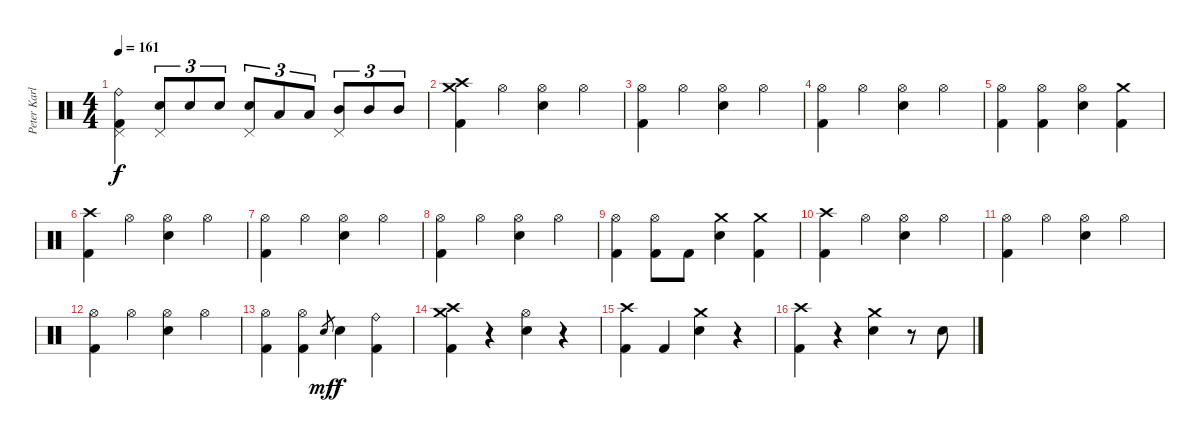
\track ("Peter Karlsson" "Peter Karl") {instrument percussion}
\staff {score}
\articulation defaults
\ts (4 4)
\tempo 161
\clef neutral
\ks c
("Ride (bell)" "Pedal Hi-Hat (hit)" "Kick (hit) 2").4{dy f} ("Snare (hit) 2" "Pedal Hi-Hat (hit)").8{tu (3 2)} "Snare (hit) 2".8{tu (3 2)} "Snare (hit) 2".8{tu (3 2)} ("Snare (hit) 2" "Pedal Hi-Hat (hit)").8{tu (3 2)} "Low Tom (hit)".8{tu (3 2)} "Low Tom (hit)".8{tu (3 2)} ("Mid Tom (hit)" "Pedal Hi-Hat (hit)").8{tu (3 2)} "Mid Tom (hit)".8{tu (3 2)} "Mid Tom (hit)".8{tu (3 2)} |
("Crash high (hit)" "Crash medium (hit)" "Kick (hit) 2").4 "Hi-Hat (open)".4 ("Hi-Hat (open)" "Snare (hit) 2").4 "Hi-Hat (open)".4 |
("Hi-Hat (open)" "Kick (hit) 2").4 "Hi-Hat (open)".4 ("Hi-Hat (open)" "Snare (hit) 2").4 "Hi-Hat (open)".4 |
("Hi-Hat (open)" "Kick (hit) 2").4 "Hi-Hat (open)".4 ("Hi-Hat (open)" "Snare (hit) 2").4 "Hi-Hat (open)".4 |
("Hi-Hat (open)" "Kick (hit) 2").4 ("Hi-Hat (open)" "Kick (hit) 2").4 ("Hi-Hat (open)" "Snare (hit) 2").4 ("Crash medium (hit)" "Kick (hit) 2").4 |
("Crash high (hit)" "Kick (hit) 2").4 "Hi-Hat (open)".4 ("Hi-Hat (open)" "Snare (hit) 2").4 "Hi-Hat (open)".4 |
("Hi-Hat (open)" "Kick (hit) 2").4 "Hi-Hat (open)".4 ("Hi-Hat (open)" "Snare (hit) 2").4 "Hi-Hat (open)".4 |
("Hi-Hat (open)" "Kick (hit) 2").4 "Hi-Hat (open)".4 ("Hi-Hat (open)" "Snare (hit) 2").4 "Hi-Hat (open)".4 |
("Hi-Hat (open)" "Kick (hit) 2").4 ("Hi-Hat (open)" "Kick (hit) 2").8 "Kick (hit) 2".8 ("Crash medium (hit)" "Snare (hit) 2").4 ("Crash medium (hit)" "Kick (hit) 2").4 |
("Crash high (hit)" "Kick (hit) 2").4 "Hi-Hat (open)".4 ("Hi-Hat (open)" "Snare (hit) 2").4 "Hi-Hat (open)".4 |
("Hi-Hat (open)" "Kick (hit) 2").4 "Hi-Hat (open)".4 ("Hi-Hat (open)" "Snare (hit) 2").4 "Hi-Hat (open)".4 |
("Hi-Hat (open)" "Kick (hit) 2").4 "Hi-Hat (open)".4 ("Hi-Hat (open)" "Snare (hit) 2").4 "Hi-Hat (open)".4 |
("Hi-Hat (open)" "Kick (hit) 2").4 ("Hi-Hat (open)" "Kick (hit) 2").4 "Snare (hit) 2".8{gr dy mf} "Snare (hit) 2".4{dy f} ("Ride (bell)" "Kick (hit) 2").4 |
("Crash high (hit)" "Crash medium (hit)" "Kick (hit) 2").4 r.4 ("Hi-Hat (open)" "Snare (hit) 2").4 r.4 |
("Crash high (hit)" "Kick (hit) 2").4 "Kick (hit) 2".4 ("Crash medium (hit)" "Snare (hit) 2").4 r.4 |
("Crash high (hit)" "Kick (hit) 2").4 r.4 ("Crash medium (hit)" "Snare (hit) 2").4 r.8 "Snare (hit) 2".8
